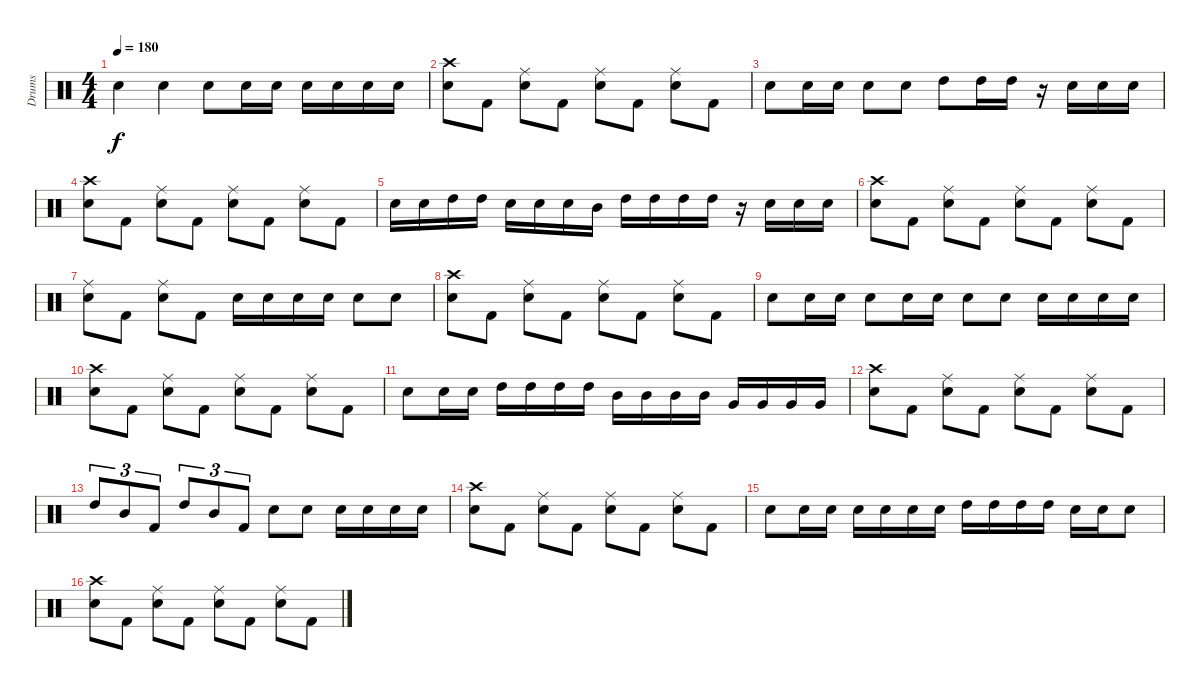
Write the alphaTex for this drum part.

\track ("Drums" "Drums") {instrument percussion}
\staff {score}
\articulation defaults
\ts (4 4)
\tempo 180
\clef neutral
\ks c "Electric Snare (hit)".4{dy f} "Electric Snare (hit)".4 "Electric Snare (hit)".8 "Electric Snare (hit)".16 "Electric Snare (hit)".16 "Electric Snare (hit)".16 "Electric Snare (hit)".16 "Electric Snare (hit)".16 "Electric Snare (hit)".16
|
("Crash high (hit)" "Electric Snare (hit)").8 "Kick (hit) 2".8 ("Ride (middle)" "Electric Snare (hit)").8 "Kick (hit) 2".8 ("Ride (middle)" "Electric Snare (hit)").8 "Kick (hit) 2".8 ("Ride (middle)" "Electric Snare (hit)").8 "Kick (hit) 2".8 |
"Electric Snare (hit)".8 "Electric Snare (hit)".16 "Electric Snare (hit)".16 "Electric Snare (hit)".8 "Electric Snare (hit)".8 "High Tom (hit)".8 "High Tom (hit)".16 "High Tom (hit)".16 r.16 "Electric Snare (hit)".16 "Electric Snare (hit)".16 "Electric Snare (hit)".16 |
("Crash high (hit)" "Electric Snare (hit)").8 "Kick (hit) 2".8 ("Ride (middle)" "Electric Snare (hit)").8 "Kick (hit) 2".8 ("Ride (middle)" "Electric Snare (hit)").8 "Kick (hit) 2".8 ("Ride (middle)" "Electric Snare (hit)").8 "Kick (hit) 2".8 |
"Electric Snare (hit)".16 "Electric Snare (hit)".16 "High Tom (hit)".16 "High Tom (hit)".16 "Electric Snare (hit)".16 "Electric Snare (hit)".16 "Electric Snare (hit)".16 "Mid Tom (hit)".16 "High Tom (hit)".16 "High Tom (hit)".16 "High Tom (hit)".16 "High Tom (hit)".16 r.16 "Electric Snare (hit)".16 "Electric Snare (hit)".16 "Electric Snare (hit)".16 |
("Crash high (hit)" "Electric Snare (hit)").8 "Kick (hit) 2".8 ("Ride (middle)" "Electric Snare (hit)").8 "Kick (hit) 2".8 ("Ride (middle)" "Electric Snare (hit)").8 "Kick (hit) 2".8 ("Ride (middle)" "Electric Snare (hit)").8 "Kick (hit) 2".8 |
("Ride (middle)" "Electric Snare (hit)").8 "Kick (hit) 2".8 ("Ride (middle)" "Electric Snare (hit)").8 "Kick (hit) 2".8 "Electric Snare (hit)".16 "Electric Snare (hit)".16 "Electric Snare (hit)".16 "Electric Snare (hit)".16 "Electric Snare (hit)".8 "Electric Snare (hit)".8 |
("Crash high (hit)" "Electric Snare (hit)").8 "Kick (hit) 2".8 ("Ride (middle)" "Electric Snare (hit)").8 "Kick (hit) 2".8 ("Ride (middle)" "Electric Snare (hit)").8 "Kick (hit) 2".8 ("Ride (middle)" "Electric Snare (hit)").8 "Kick (hit) 2".8 |
"Electric Snare (hit)".8 "Electric Snare (hit)".16 "Electric Snare (hit)".16 "Electric Snare (hit)".8 "Electric Snare (hit)".16 "Electric Snare (hit)".16 "Electric Snare (hit)".8 "Electric Snare (hit)".8 "Electric Snare (hit)".16 "Electric Snare (hit)".16 "Electric Snare (hit)".16 "Electric Snare (hit)".16 |
("Crash high (hit)" "Electric Snare (hit)").8 "Kick (hit) 2".8 ("Ride (middle)" "Electric Snare (hit)").8 "Kick (hit) 2".8 ("Ride (middle)" "Electric Snare (hit)").8 "Kick (hit) 2".8 ("Ride (middle)" "Electric Snare (hit)").8 "Kick (hit) 2".8 |
"Electric Snare (hit)".8 "Electric Snare (hit)".16 "Electric Snare (hit)".16 "High Tom (hit)".16 "High Tom (hit)".16 "High Tom (hit)".16 "High Tom (hit)".16 "Mid Tom (hit)".16 "Mid Tom (hit)".16 "Mid Tom (hit)".16 "Mid Tom (hit)".16 "Very Low Tom (hit)".16 "Very Low Tom (hit)".16 "Very Low Tom (hit)".16 "Very Low Tom (hit)".16 |
("Crash high (hit)" "Electric Snare (hit)").8 "Kick (hit) 2".8 ("Ride (middle)" "Electric Snare (hit)").8 "Kick (hit) 2".8 ("Ride (middle)" "Electric Snare (hit)").8 "Kick (hit) 2".8 ("Ride (middle)" "Electric Snare (hit)").8 "Kick (hit) 2".8 |
"High Tom (hit)".8{tu (3 2)} "Mid Tom (hit)".8{tu (3 2)} "Kick (hit) 2".8{tu (3 2)} "High Tom (hit)".8{tu (3 2)} "Mid Tom (hit)".8{tu (3 2)} "Kick (hit) 2".8{tu (3 2)} "Electric Snare (hit)".8 "Electric Snare (hit)".8 "Electric Snare (hit)".16 "Electric Snare (hit)".16 "Electric Snare (hit)".16 "Electric Snare (hit)".16 |
("Crash high (hit)" "Electric Snare (hit)").8 "Kick (hit) 2".8 ("Ride (middle)" "Electric Snare (hit)").8 "Kick (hit) 2".8 ("Ride (middle)" "Electric Snare (hit)").8 "Kick (hit) 2".8 ("Ride (middle)" "Electric Snare (hit)").8 "Kick (hit) 2".8 |
"Electric Snare (hit)".8 "Electric Snare (hit)".16 "Electric Snare (hit)".16 "Electric Snare (hit)".16 "Electric Snare (hit)".16 "Electric Snare (hit)".16 "Electric Snare (hit)".16 "High Tom (hit)".16 "High Tom (hit)".16 "High Tom (hit)".16 "High Tom (hit)".16 "Electric Snare (hit)".16 "Electric Snare (hit)".16 "Electric Snare (hit)".8 |
("Crash high (hit)" "Electric Snare (hit)").8 "Kick (hit) 2".8 ("Ride (middle)" "Electric Snare (hit)").8 "Kick (hit) 2".8 ("Ride (middle)" "Electric Snare (hit)").8 "Kick (hit) 2".8 ("Ride (middle)" "Electric Snare (hit)").8 "Kick (hit) 2".8
